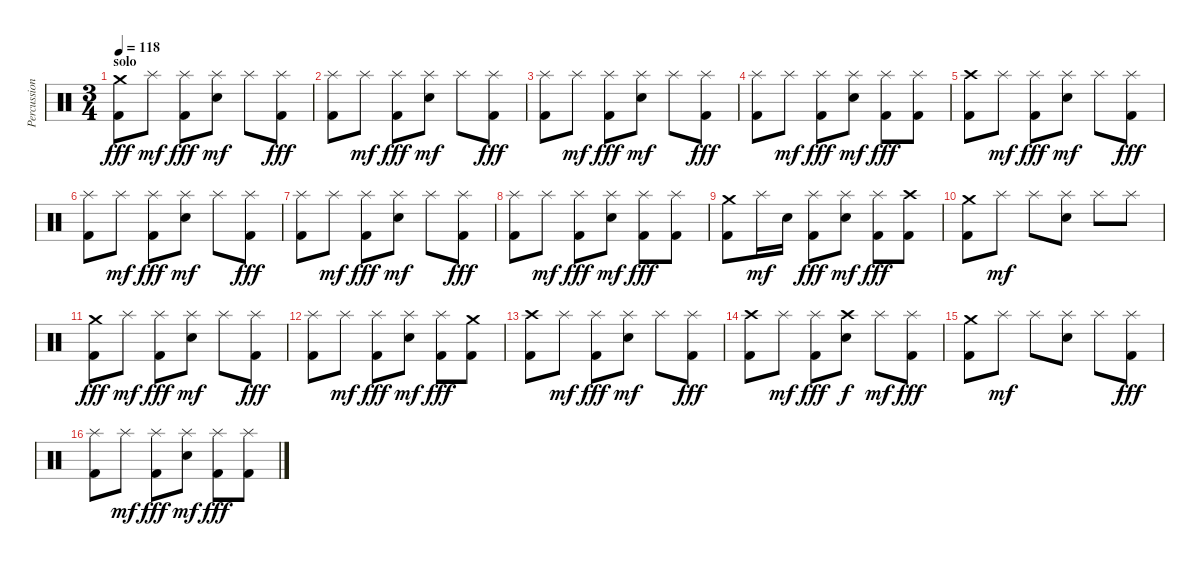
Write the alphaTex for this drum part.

\track ("Percussion" "Percussion") {instrument percussion}
\staff {score}
\articulation defaults
\ts (3 4)
\section ("" "solo")
\tempo 118
\clef neutral
\ks c
("Crash medium (hit)" "Kick (hit) 2").8{dy fff} "Splash (hit)".8{dy mf} ("Splash (hit)" "Kick (hit) 2").8{dy fff} ("Splash (hit)" "Electric Snare (hit)").8{dy mf} "Splash (hit)".8 ("Splash (hit)" "Kick (hit) 2").8{dy fff} |
("Splash (hit)" "Kick (hit) 2").8 "Splash (hit)".8{dy mf} ("Splash (hit)" "Kick (hit) 2").8{dy fff} ("Splash (hit)" "Electric Snare (hit)").8{dy mf} "Splash (hit)".8 ("Splash (hit)" "Kick (hit) 2").8{dy fff} |
("Splash (hit)" "Kick (hit) 2").8 "Splash (hit)".8{dy mf} ("Splash (hit)" "Kick (hit) 2").8{dy fff} ("Splash (hit)" "Electric Snare (hit)").8{dy mf} "Splash (hit)".8 ("Splash (hit)" "Kick (hit) 2").8{dy fff} |
("Splash (hit)" "Kick (hit) 2").8 "Splash (hit)".8{dy mf} ("Splash (hit)" "Kick (hit) 2").8{dy fff} ("Splash (hit)" "Electric Snare (hit)").8{dy mf} ("Splash (hit)" "Kick (hit) 2").8{dy fff} ("Splash (hit)" "Kick (hit) 2").8 |
("Crash high (hit)" "Kick (hit) 2").8 "Splash (hit)".8{dy mf} ("Splash (hit)" "Kick (hit) 2").8{dy fff} ("Splash (hit)" "Electric Snare (hit)").8{dy mf} "Splash (hit)".8 ("Splash (hit)" "Kick (hit) 2").8{dy fff} |
("Splash (hit)" "Kick (hit) 2").8 "Splash (hit)".8{dy mf} ("Splash (hit)" "Kick (hit) 2").8{dy fff} ("Splash (hit)" "Electric Snare (hit)").8{dy mf} "Splash (hit)".8 ("Splash (hit)" "Kick (hit) 2").8{dy fff} |
\section ("" "")
("Splash (hit)" "Kick (hit) 2").8 "Splash (hit)".8{dy mf} ("Splash (hit)" "Kick (hit) 2").8{dy fff} ("Splash (hit)" "Electric Snare (hit)").8{dy mf} "Splash (hit)".8 ("Splash (hit)" "Kick (hit) 2").8{dy fff} |
("Splash (hit)" "Kick (hit) 2").8 "Splash (hit)".8{dy mf} ("Splash (hit)" "Kick (hit) 2").8{dy fff} ("Splash (hit)" "Electric Snare (hit)").8{dy mf} ("Splash (hit)" "Kick (hit) 2").8{dy fff} ("Splash (hit)" "Kick (hit) 2").8 |
("Crash medium (hit)" "Kick (hit) 2").8 "Splash (hit)".16{dy mf} "Electric Snare (hit)".16 ("Splash (hit)" "Kick (hit) 2").8{dy fff} ("Splash (hit)" "Electric Snare (hit)").8{dy mf} ("Splash (hit)" "Kick (hit) 2").8{dy fff} ("Crash high (hit)" "Kick (hit) 2").8 |
("Crash medium (hit)" "Kick (hit) 2").8 "Splash (hit)".8{dy mf} "Splash (hit)".8 ("Splash (hit)" "Electric Snare (hit)").8 "Splash (hit)".8 "Splash (hit)".8 |
("Crash medium (hit)" "Kick (hit) 2").8{dy fff} "Splash (hit)".8{dy mf} ("Splash (hit)" "Kick (hit) 2").8{dy fff} ("Splash (hit)" "Electric Snare (hit)").8{dy mf} "Splash (hit)".8 ("Splash (hit)" "Kick (hit) 2").8{dy fff} |
("Splash (hit)" "Kick (hit) 2").8 "Splash (hit)".8{dy mf} ("Splash (hit)" "Kick (hit) 2").8{dy fff} ("Splash (hit)" "Electric Snare (hit)").8{dy mf} ("Splash (hit)" "Kick (hit) 2").8{dy fff} ("Crash medium (hit)" "Kick (hit) 2").8 |
("Crash high (hit)" "Kick (hit) 2").8 "Splash (hit)".8{dy mf} ("Splash (hit)" "Kick (hit) 2").8{dy fff} ("Splash (hit)" "Electric Snare (hit)").8{dy mf} "Splash (hit)".8 ("Splash (hit)" "Kick (hit) 2").8{dy fff} |
("Crash high (hit)" "Kick (hit) 2").8 "Splash (hit)".8{dy mf} ("Splash (hit)" "Kick (hit) 2").8{dy fff} ("Crash high (hit)" "Electric Snare (hit)").8{dy f} "Splash (hit)".8{dy mf} ("Splash (hit)" "Kick (hit) 2").8{dy fff} |
\section ("" "")
("Crash medium (hit)" "Kick (hit) 2").8 "Splash (hit)".8{dy mf} "Splash (hit)".8 ("Splash (hit)" "Electric Snare (hit)").8 "Splash (hit)".8 ("Splash (hit)" "Kick (hit) 2").8{dy fff} |
("Splash (hit)" "Kick (hit) 2").8 "Splash (hit)".8{dy mf} ("Splash (hit)" "Kick (hit) 2").8{dy fff} ("Splash (hit)" "Electric Snare (hit)").8{dy mf} ("Splash (hit)" "Kick (hit) 2").8{dy fff} ("Splash (hit)" "Kick (hit) 2").8
